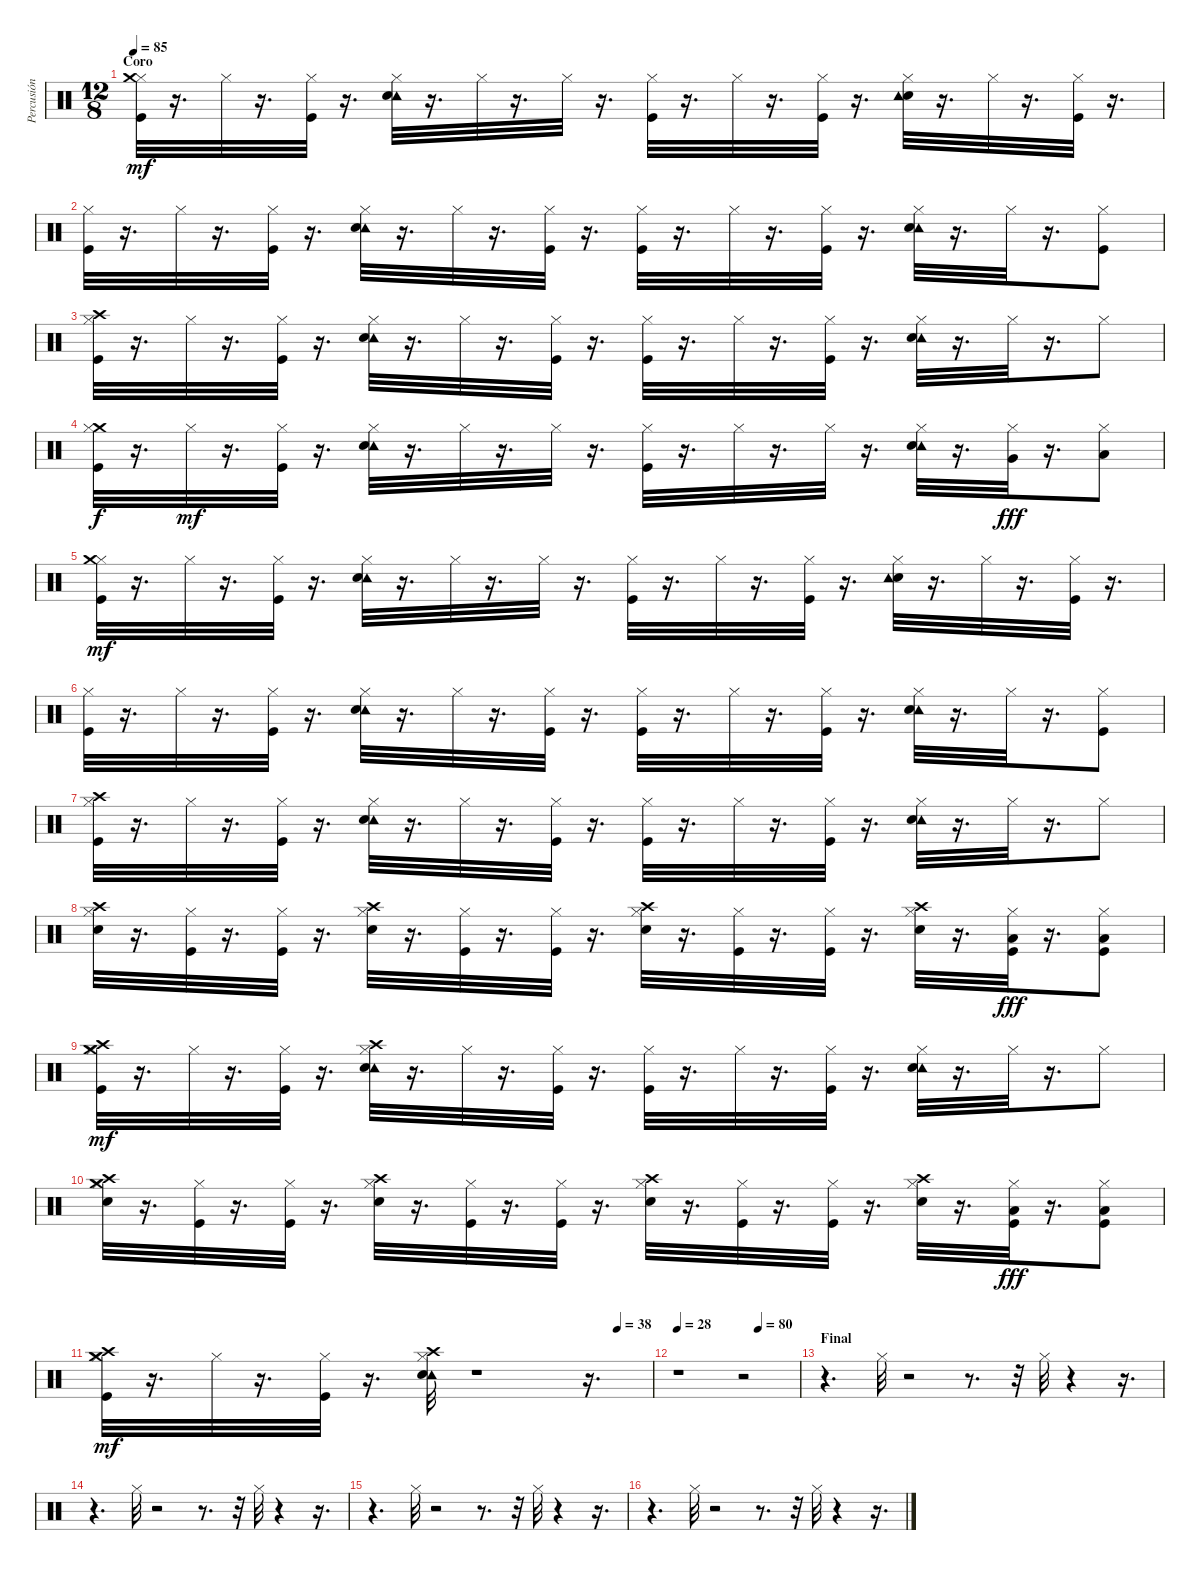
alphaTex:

\track ("Percusión" "Percusión") {instrument percussion}
\staff {score}
\articulation defaults
\ts (12 8)
\section ("" "Coro")
\tempo 85
\clef neutral
\ks c
("Hi-Hat (closed)" "Crash medium (hit)" "Kick (hit)").32{dy mf} r.16{d} "Hi-Hat (closed)".32 r.16{d} ("Hi-Hat (closed)" "Kick (hit)").32 r.16{d} ("Hi-Hat (closed)" "Tambourine (hit)" "Snare (hit) 2").32 r.16{d} "Hi-Hat (closed)".32 r.16{d} "Hi-Hat (closed)".32 r.16{d} ("Hi-Hat (closed)" "Kick (hit)").32 r.16{d} "Hi-Hat (closed)".32 r.16{d} ("Hi-Hat (closed)" "Kick (hit)").32 r.16{d} ("Snare (hit) 2" "Hi-Hat (closed)" "Tambourine (hit)").32 r.16{d} "Hi-Hat (closed)".32 r.16{d} ("Kick (hit)" "Hi-Hat (closed)").32 r.16{d} |
("Kick (hit)" "Hi-Hat (closed)").32 r.16{d} "Hi-Hat (closed)".32 r.16{d} ("Kick (hit)" "Hi-Hat (closed)").32 r.16{d} ("Tambourine (hit)" "Snare (hit) 2" "Hi-Hat (closed)").32 r.16{d} "Hi-Hat (closed)".32 r.16{d} ("Kick (hit)" "Hi-Hat (closed)").32 r.16{d} ("Kick (hit)" "Hi-Hat (closed)").32 r.16{d} "Hi-Hat (closed)".32 r.16{d} ("Kick (hit)" "Hi-Hat (closed)").32 r.16{d} ("Tambourine (hit)" "Snare (hit) 2" "Hi-Hat (closed)").32 r.16{d} "Hi-Hat (closed)".32 r.16{d} ("Kick (hit)" "Hi-Hat (closed)").8 |
("Kick (hit)" "Crash high (hit)" "Hi-Hat (closed)").32 r.16{d} "Hi-Hat (closed)".32 r.16{d} ("Kick (hit)" "Hi-Hat (closed)").32 r.16{d} ("Tambourine (hit)" "Snare (hit) 2" "Hi-Hat (closed)").32 r.16{d} "Hi-Hat (closed)".32 r.16{d} ("Kick (hit)" "Hi-Hat (closed)").32 r.16{d} ("Kick (hit)" "Hi-Hat (closed)").32 r.16{d} "Hi-Hat (closed)".32 r.16{d} ("Kick (hit)" "Hi-Hat (closed)").32 r.16{d} ("Tambourine (hit)" "Snare (hit) 2" "Hi-Hat (closed)").32 r.16{d} "Hi-Hat (closed)".32 r.16{d} "Hi-Hat (closed)".8 |
("Crash medium (hit)" "Kick (hit)" "Hi-Hat (closed)").32{dy f} r.16{d} "Hi-Hat (closed)".32{dy mf} r.16{d} ("Kick (hit)" "Hi-Hat (closed)").32 r.16{d} ("Tambourine (hit)" "Snare (hit) 2" "Hi-Hat (closed)").32 r.16{d} "Hi-Hat (closed)".32 r.16{d} "Hi-Hat (closed)".32 r.16{d} ("Kick (hit)" "Hi-Hat (closed)").32 r.16{d} "Hi-Hat (closed)".32 r.16{d} "Hi-Hat (closed)".32 r.16{d} ("Tambourine (hit)" "Snare (hit) 2" "Hi-Hat (closed)").32 r.16{d} ("Very Low Tom (hit)" "Hi-Hat (closed)").32{dy fff} r.16{d} ("Low Floor Tom (hit)" "Hi-Hat (closed)").8 |
("Hi-Hat (closed)" "Crash medium (hit)" "Kick (hit)").32{dy mf} r.16{d} "Hi-Hat (closed)".32 r.16{d} ("Hi-Hat (closed)" "Kick (hit)").32 r.16{d} ("Hi-Hat (closed)" "Tambourine (hit)" "Snare (hit) 2").32 r.16{d} "Hi-Hat (closed)".32 r.16{d} "Hi-Hat (closed)".32 r.16{d} ("Hi-Hat (closed)" "Kick (hit)").32 r.16{d} "Hi-Hat (closed)".32 r.16{d} ("Hi-Hat (closed)" "Kick (hit)").32 r.16{d} ("Snare (hit) 2" "Hi-Hat (closed)" "Tambourine (hit)").32 r.16{d} "Hi-Hat (closed)".32 r.16{d} ("Kick (hit)" "Hi-Hat (closed)").32 r.16{d} |
("Kick (hit)" "Hi-Hat (closed)").32 r.16{d} "Hi-Hat (closed)".32 r.16{d} ("Kick (hit)" "Hi-Hat (closed)").32 r.16{d} ("Tambourine (hit)" "Snare (hit) 2" "Hi-Hat (closed)").32 r.16{d} "Hi-Hat (closed)".32 r.16{d} ("Kick (hit)" "Hi-Hat (closed)").32 r.16{d} ("Kick (hit)" "Hi-Hat (closed)").32 r.16{d} "Hi-Hat (closed)".32 r.16{d} ("Kick (hit)" "Hi-Hat (closed)").32 r.16{d} ("Tambourine (hit)" "Snare (hit) 2" "Hi-Hat (closed)").32 r.16{d} "Hi-Hat (closed)".32 r.16{d} ("Kick (hit)" "Hi-Hat (closed)").8 |
("Kick (hit)" "Crash high (hit)" "Hi-Hat (closed)").32 r.16{d} "Hi-Hat (closed)".32 r.16{d} ("Kick (hit)" "Hi-Hat (closed)").32 r.16{d} ("Tambourine (hit)" "Snare (hit) 2" "Hi-Hat (closed)").32 r.16{d} "Hi-Hat (closed)".32 r.16{d} ("Kick (hit)" "Hi-Hat (closed)").32 r.16{d} ("Kick (hit)" "Hi-Hat (closed)").32 r.16{d} "Hi-Hat (closed)".32 r.16{d} ("Kick (hit)" "Hi-Hat (closed)").32 r.16{d} ("Tambourine (hit)" "Snare (hit) 2" "Hi-Hat (closed)").32 r.16{d} "Hi-Hat (closed)".32 r.16{d} "Hi-Hat (closed)".8 |
("Crash high (hit)" "Snare (hit) 2" "Hi-Hat (closed)").32 r.16{d} ("Kick (hit)" "Hi-Hat (closed)").32 r.16{d} ("Kick (hit)" "Hi-Hat (closed)").32 r.16{d} ("Crash high (hit)" "Snare (hit) 2" "Hi-Hat (closed)").32 r.16{d} ("Kick (hit)" "Hi-Hat (closed)").32 r.16{d} ("Kick (hit)" "Hi-Hat (closed)").32 r.16{d} ("Crash high (hit)" "Snare (hit) 2" "Hi-Hat (closed)").32 r.16{d} ("Kick (hit)" "Hi-Hat (closed)").32 r.16{d} ("Kick (hit)" "Hi-Hat (closed)").32 r.16{d} ("Crash high (hit)" "Snare (hit) 2" "Hi-Hat (closed)").32 r.16{d} ("Kick (hit)" "Low Floor Tom (hit)" "Hi-Hat (closed)").32{dy fff} r.16{d} ("Kick (hit)" "Low Floor Tom (hit)" "Hi-Hat (closed)").8 |
("Crash medium (hit)" "Kick (hit)" "Crash high (hit)" "Hi-Hat (closed)").32{dy mf} r.16{d} "Hi-Hat (closed)".32 r.16{d} ("Kick (hit)" "Hi-Hat (closed)").32 r.16{d} ("Crash high (hit)" "Tambourine (hit)" "Snare (hit) 2" "Hi-Hat (closed)").32 r.16{d} "Hi-Hat (closed)".32 r.16{d} ("Kick (hit)" "Hi-Hat (closed)").32 r.16{d} ("Kick (hit)" "Hi-Hat (closed)").32 r.16{d} "Hi-Hat (closed)".32 r.16{d} ("Kick (hit)" "Hi-Hat (closed)").32 r.16{d} ("Tambourine (hit)" "Snare (hit) 2" "Hi-Hat (closed)").32 r.16{d} "Hi-Hat (closed)".32 r.16{d} "Hi-Hat (closed)".8 |
("Crash medium (hit)" "Crash high (hit)" "Snare (hit) 2" "Hi-Hat (closed)").32 r.16{d} ("Kick (hit)" "Hi-Hat (closed)").32 r.16{d} ("Kick (hit)" "Hi-Hat (closed)").32 r.16{d} ("Crash high (hit)" "Snare (hit) 2" "Hi-Hat (closed)").32 r.16{d} ("Kick (hit)" "Hi-Hat (closed)").32 r.16{d} ("Kick (hit)" "Hi-Hat (closed)").32 r.16{d} ("Crash high (hit)" "Snare (hit) 2" "Hi-Hat (closed)").32 r.16{d} ("Kick (hit)" "Hi-Hat (closed)").32 r.16{d} ("Kick (hit)" "Hi-Hat (closed)").32 r.16{d} ("Crash high (hit)" "Snare (hit) 2" "Hi-Hat (closed)").32 r.16{d} ("Kick (hit)" "Low Floor Tom (hit)" "Hi-Hat (closed)").32{dy fff} r.16{d} ("Kick (hit)" "Low Floor Tom (hit)" "Hi-Hat (closed)").8 |
\tempo (38 0.9375)
("Crash medium (hit)" "Kick (hit)" "Crash high (hit)" "Hi-Hat (closed)").32{dy mf} r.16{d} "Hi-Hat (closed)".32 r.16{d} ("Kick (hit)" "Hi-Hat (closed)").32 r.16{d} ("Crash high (hit)" "Tambourine (hit)" "Snare (hit) 2" "Hi-Hat (closed)").32 r.1 r.16{d} |
\tempo 28
\tempo (80 0.6666666666666666)
r.1 r.2 |
\section ("" "Final")
r.4{d} "Hi-Hat (closed)".32 r.2 r.8{d} r.32 "Hi-Hat (closed)".32 r.4 r.16{d} |
r.4{d} "Hi-Hat (closed)".32 r.2 r.8{d} r.32 "Hi-Hat (closed)".32 r.4 r.16{d} |
r.4{d} "Hi-Hat (closed)".32 r.2 r.8{d} r.32 "Hi-Hat (closed)".32 r.4 r.16{d} |
r.4{d} "Hi-Hat (closed)".32 r.2 r.8{d} r.32 "Hi-Hat (closed)".32 r.4 r.16{d}
